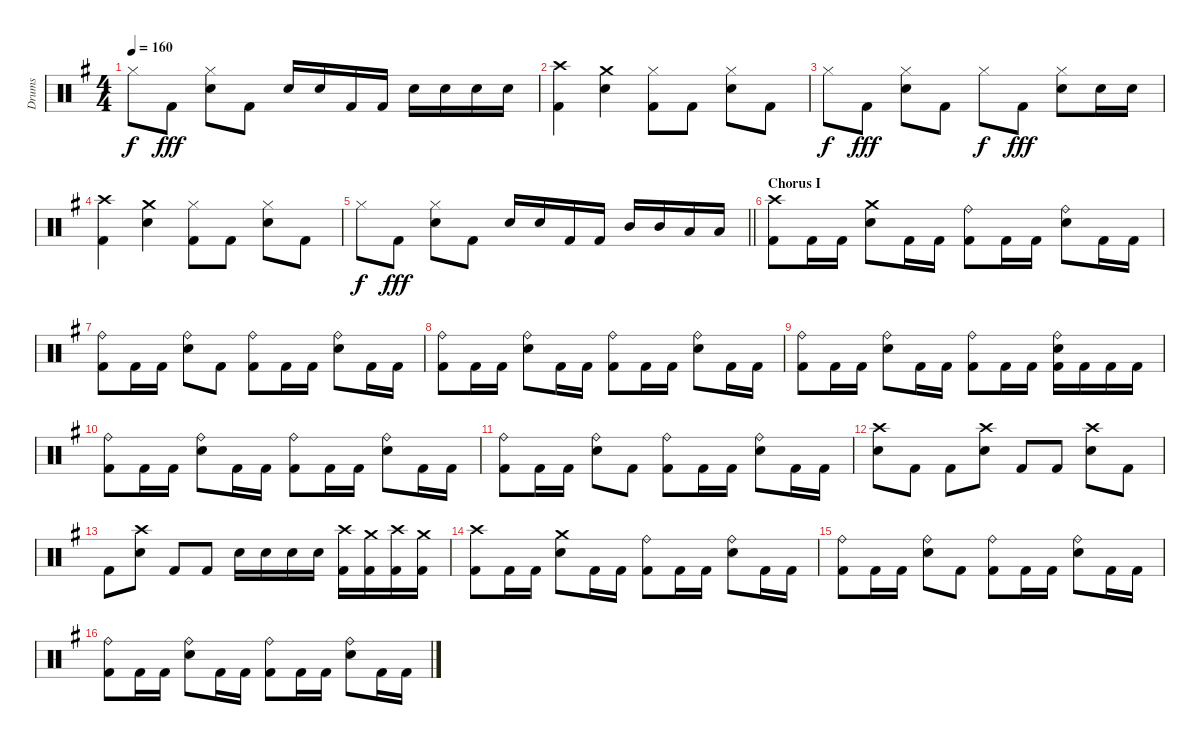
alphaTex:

\track ("Drums" "Drums") {instrument percussion}
\staff {score}
\articulation defaults
\ts (4 4)
\tempo 160
\clef neutral
\ks g "Hi-Hat (closed)".8{dy f} "Kick (hit) 2".8{dy fff}
("Hi-Hat (closed)" "Snare (hit) 2").8 "Kick (hit) 2".8 "Snare (hit) 2".16 "Snare (hit) 2".16 "Kick (hit) 2".16 "Kick (hit) 2".16 "Snare (hit) 2".16 "Snare (hit) 2".16 "Snare (hit) 2".16 "Snare (hit) 2".16 |
("Crash high (hit)" "Kick (hit) 2").4 ("Crash medium (hit)" "Snare (hit) 2").4 ("Hi-Hat (closed)" "Kick (hit) 2").8 "Kick (hit) 2".8 ("Hi-Hat (closed)" "Snare (hit) 2").8 "Kick (hit) 2".8 |
"Hi-Hat (closed)".8{dy f} "Kick (hit) 2".8{dy fff} ("Hi-Hat (closed)" "Snare (hit) 2").8 "Kick (hit) 2".8 "Hi-Hat (closed)".8{dy f} "Kick (hit) 2".8{dy fff} ("Hi-Hat (closed)" "Snare (hit) 2").8 "Snare (hit) 2".16 "Snare (hit) 2".16 |
("Crash high (hit)" "Kick (hit) 2").4 ("Crash medium (hit)" "Snare (hit) 2").4 ("Hi-Hat (closed)" "Kick (hit) 2").8 "Kick (hit) 2".8 ("Hi-Hat (closed)" "Snare (hit) 2").8 "Kick (hit) 2".8 |
\barLineRight lightlight "Hi-Hat (closed)".8{dy f} "Kick (hit) 2".8{dy fff}
("Hi-Hat (closed)" "Snare (hit) 2").8 "Kick (hit) 2".8 "Snare (hit) 2".16 "Snare (hit) 2".16 "Kick (hit) 2".16 "Kick (hit) 2".16 "Mid Tom (hit)".16 "Mid Tom (hit)".16 "Low Tom (hit)".16 "Low Tom (hit)".16 |
\section ("" "Chorus I")
("Crash high (hit)" "Kick (hit) 2").8 "Kick (hit) 2".16 "Kick (hit) 2".16 ("Crash medium (hit)" "Snare (hit) 2").8 "Kick (hit) 2".16 "Kick (hit) 2".16 ("Ride (bell)" "Kick (hit) 2").8 "Kick (hit) 2".16 "Kick (hit) 2".16 ("Ride (bell)" "Snare (hit) 2").8 "Kick (hit) 2".16 "Kick (hit) 2".16 |
("Ride (bell)" "Kick (hit) 2").8 "Kick (hit) 2".16 "Kick (hit) 2".16 ("Ride (bell)" "Snare (hit) 2").8 "Kick (hit) 2".8 ("Ride (bell)" "Kick (hit) 2").8 "Kick (hit) 2".16 "Kick (hit) 2".16 ("Ride (bell)" "Snare (hit) 2").8 "Kick (hit) 2".16 "Kick (hit) 2".16 |
("Ride (bell)" "Kick (hit) 2").8 "Kick (hit) 2".16 "Kick (hit) 2".16 ("Ride (bell)" "Snare (hit) 2").8 "Kick (hit) 2".16 "Kick (hit) 2".16 ("Ride (bell)" "Kick (hit) 2").8 "Kick (hit) 2".16 "Kick (hit) 2".16 ("Ride (bell)" "Snare (hit) 2").8 "Kick (hit) 2".16 "Kick (hit) 2".16 |
("Ride (bell)" "Kick (hit) 2").8 "Kick (hit) 2".16 "Kick (hit) 2".16 ("Ride (bell)" "Snare (hit) 2").8 "Kick (hit) 2".16 "Kick (hit) 2".16 ("Ride (bell)" "Kick (hit) 2").8 "Kick (hit) 2".16 "Kick (hit) 2".16 ("Ride (bell)" "Snare (hit) 2" "Kick (hit) 2").16 "Kick (hit) 2".16 "Kick (hit) 2".16 "Kick (hit) 2".16 |
("Ride (bell)" "Kick (hit) 2").8 "Kick (hit) 2".16 "Kick (hit) 2".16 ("Ride (bell)" "Snare (hit) 2").8 "Kick (hit) 2".16 "Kick (hit) 2".16 ("Ride (bell)" "Kick (hit) 2").8 "Kick (hit) 2".16 "Kick (hit) 2".16 ("Ride (bell)" "Snare (hit) 2").8 "Kick (hit) 2".16 "Kick (hit) 2".16 |
("Ride (bell)" "Kick (hit) 2").8 "Kick (hit) 2".16 "Kick (hit) 2".16 ("Ride (bell)" "Snare (hit) 2").8 "Kick (hit) 2".8 ("Ride (bell)" "Kick (hit) 2").8 "Kick (hit) 2".16 "Kick (hit) 2".16 ("Ride (bell)" "Snare (hit) 2").8 "Kick (hit) 2".16 "Kick (hit) 2".16 |
("Crash high (hit)" "Snare (hit) 2").8 "Kick (hit) 2".8 "Kick (hit) 2".8 ("Crash high (hit)" "Snare (hit) 2").8 "Kick (hit) 2".8 "Kick (hit) 2".8 ("Crash high (hit)" "Snare (hit) 2").8 "Kick (hit) 2".8 |
"Kick (hit) 2".8 ("Crash high (hit)" "Snare (hit) 2").8 "Kick (hit) 2".8 "Kick (hit) 2".8 "Snare (hit) 2".16 "Snare (hit) 2".16 "Snare (hit) 2".16 "Snare (hit) 2".16 ("Crash high (hit)" "Kick (hit) 2").16 ("Crash medium (hit)" "Kick (hit) 2").16 ("Crash high (hit)" "Kick (hit) 2").16 ("Crash medium (hit)" "Kick (hit) 2").16 |
("Crash high (hit)" "Kick (hit) 2").8 "Kick (hit) 2".16 "Kick (hit) 2".16 ("Crash medium (hit)" "Snare (hit) 2").8 "Kick (hit) 2".16 "Kick (hit) 2".16 ("Ride (bell)" "Kick (hit) 2").8 "Kick (hit) 2".16 "Kick (hit) 2".16 ("Ride (bell)" "Snare (hit) 2").8 "Kick (hit) 2".16 "Kick (hit) 2".16 |
("Ride (bell)" "Kick (hit) 2").8 "Kick (hit) 2".16 "Kick (hit) 2".16 ("Ride (bell)" "Snare (hit) 2").8 "Kick (hit) 2".8 ("Ride (bell)" "Kick (hit) 2").8 "Kick (hit) 2".16 "Kick (hit) 2".16 ("Ride (bell)" "Snare (hit) 2").8 "Kick (hit) 2".16 "Kick (hit) 2".16 |
("Ride (bell)" "Kick (hit) 2").8 "Kick (hit) 2".16 "Kick (hit) 2".16 ("Ride (bell)" "Snare (hit) 2").8 "Kick (hit) 2".16 "Kick (hit) 2".16 ("Ride (bell)" "Kick (hit) 2").8 "Kick (hit) 2".16 "Kick (hit) 2".16 ("Ride (bell)" "Snare (hit) 2").8 "Kick (hit) 2".16 "Kick (hit) 2".16
